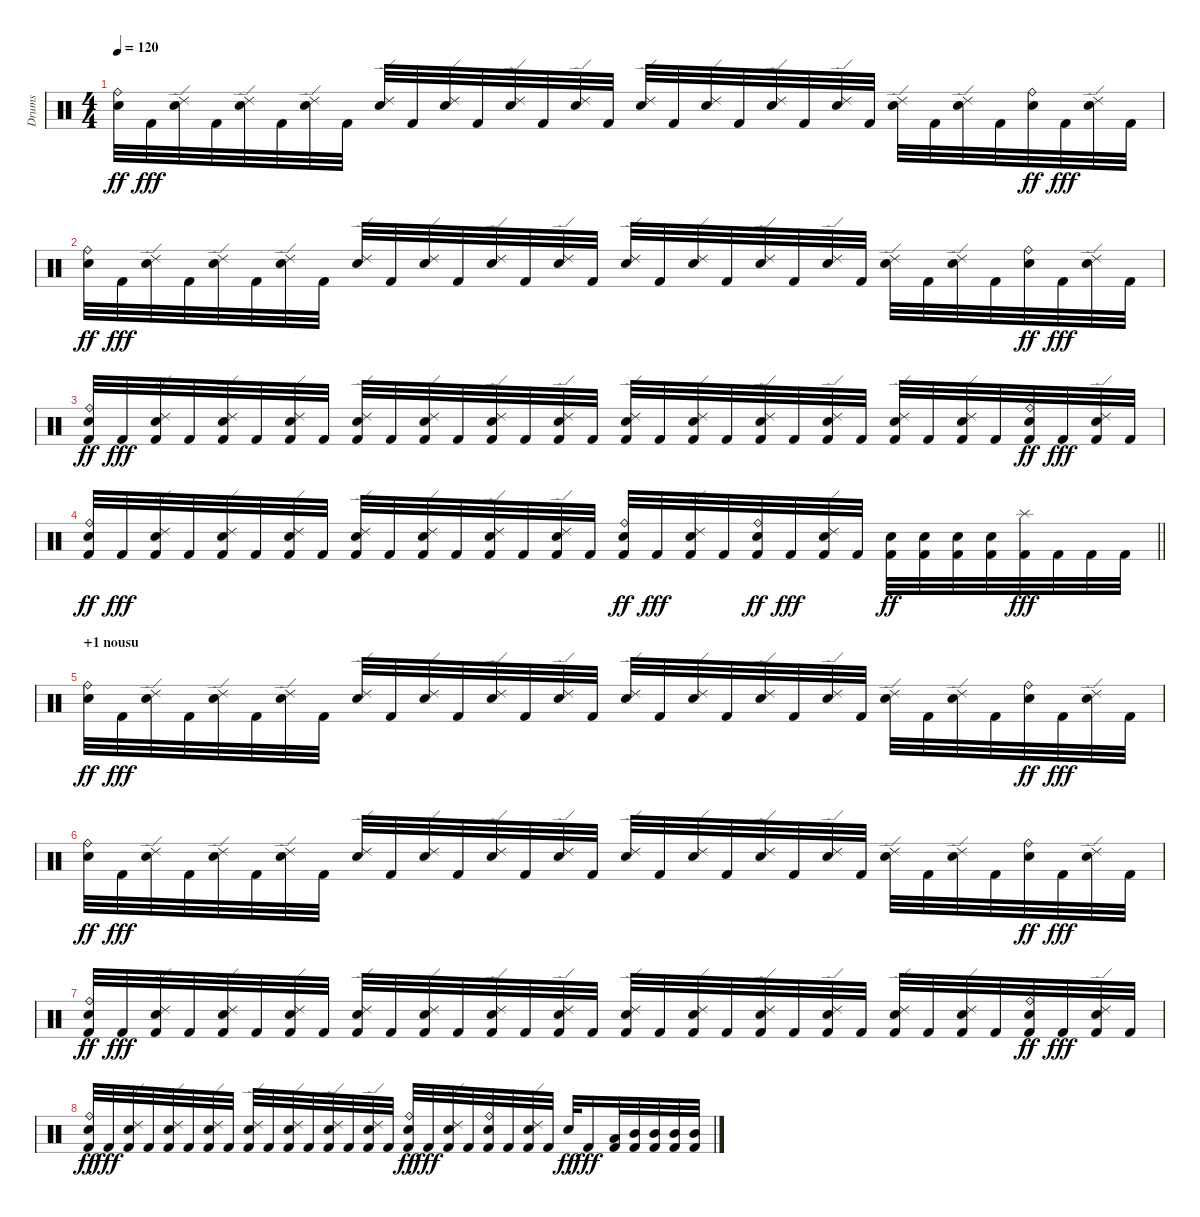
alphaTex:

\track ("Drums" "Drums") {instrument percussion}
\staff {score}
\articulation defaults
\ts (4 4)
\tempo 120
\clef neutral
\ks c
("Snare (hit) 2" "Ride (bell)").32{dy ff} "Kick (hit) 2".32{dy fff} ("Snare (hit) 2" "Ride (edge) 2").32 "Kick (hit) 2".32 ("Snare (hit) 2" "Ride (edge) 2").32 "Kick (hit) 2".32 ("Snare (hit) 2" "Ride (edge) 2").32 "Kick (hit) 2".32 ("Snare (hit) 2" "Ride (edge) 2").32 "Kick (hit) 2".32 ("Snare (hit) 2" "Ride (edge) 2").32 "Kick (hit) 2".32 ("Snare (hit) 2" "Ride (edge) 2").32 "Kick (hit) 2".32 ("Snare (hit) 2" "Ride (edge) 2").32 "Kick (hit) 2".32 ("Snare (hit) 2" "Ride (edge) 2").32 "Kick (hit) 2".32 ("Snare (hit) 2" "Ride (edge) 2").32 "Kick (hit) 2".32 ("Snare (hit) 2" "Ride (edge) 2").32 "Kick (hit) 2".32 ("Snare (hit) 2" "Ride (edge) 2").32 "Kick (hit) 2".32 ("Snare (hit) 2" "Ride (edge) 2").32 "Kick (hit) 2".32 ("Snare (hit) 2" "Ride (edge) 2").32 "Kick (hit) 2".32 ("Snare (hit) 2" "Ride (bell)").32{dy ff} "Kick (hit) 2".32{dy fff} ("Snare (hit) 2" "Ride (edge) 2").32 "Kick (hit) 2".32 |
("Snare (hit) 2" "Ride (bell)").32{dy ff} "Kick (hit) 2".32{dy fff} ("Snare (hit) 2" "Ride (edge) 2").32 "Kick (hit) 2".32 ("Snare (hit) 2" "Ride (edge) 2").32 "Kick (hit) 2".32 ("Snare (hit) 2" "Ride (edge) 2").32 "Kick (hit) 2".32 ("Snare (hit) 2" "Ride (edge) 2").32 "Kick (hit) 2".32 ("Snare (hit) 2" "Ride (edge) 2").32 "Kick (hit) 2".32 ("Snare (hit) 2" "Ride (edge) 2").32 "Kick (hit) 2".32 ("Snare (hit) 2" "Ride (edge) 2").32 "Kick (hit) 2".32 ("Snare (hit) 2" "Ride (edge) 2").32 "Kick (hit) 2".32 ("Snare (hit) 2" "Ride (edge) 2").32 "Kick (hit) 2".32 ("Snare (hit) 2" "Ride (edge) 2").32 "Kick (hit) 2".32 ("Snare (hit) 2" "Ride (edge) 2").32 "Kick (hit) 2".32 ("Snare (hit) 2" "Ride (edge) 2").32 "Kick (hit) 2".32 ("Snare (hit) 2" "Ride (edge) 2").32 "Kick (hit) 2".32 ("Snare (hit) 2" "Ride (bell)").32{dy ff} "Kick (hit) 2".32{dy fff} ("Snare (hit) 2" "Ride (edge) 2").32 "Kick (hit) 2".32 |
("Kick (hit) 2" "Snare (hit) 2" "Ride (bell)").32{dy ff} "Kick (hit) 2".32{dy fff} ("Kick (hit) 2" "Snare (hit) 2" "Ride (edge) 2").32 "Kick (hit) 2".32 ("Kick (hit) 2" "Snare (hit) 2" "Ride (edge) 2").32 "Kick (hit) 2".32 ("Kick (hit) 2" "Snare (hit) 2" "Ride (edge) 2").32 "Kick (hit) 2".32 ("Kick (hit) 2" "Snare (hit) 2" "Ride (edge) 2").32 "Kick (hit) 2".32 ("Kick (hit) 2" "Snare (hit) 2" "Ride (edge) 2").32 "Kick (hit) 2".32 ("Kick (hit) 2" "Snare (hit) 2" "Ride (edge) 2").32 "Kick (hit) 2".32 ("Kick (hit) 2" "Snare (hit) 2" "Ride (edge) 2").32 "Kick (hit) 2".32 ("Kick (hit) 2" "Snare (hit) 2" "Ride (edge) 2").32 "Kick (hit) 2".32 ("Kick (hit) 2" "Snare (hit) 2" "Ride (edge) 2").32 "Kick (hit) 2".32 ("Kick (hit) 2" "Snare (hit) 2" "Ride (edge) 2").32 "Kick (hit) 2".32 ("Kick (hit) 2" "Snare (hit) 2" "Ride (edge) 2").32 "Kick (hit) 2".32 ("Kick (hit) 2" "Snare (hit) 2" "Ride (edge) 2").32 "Kick (hit) 2".32 ("Kick (hit) 2" "Snare (hit) 2" "Ride (edge) 2").32 "Kick (hit) 2".32 ("Kick (hit) 2" "Snare (hit) 2" "Ride (bell)").32{dy ff} "Kick (hit) 2".32{dy fff} ("Kick (hit) 2" "Snare (hit) 2" "Ride (edge) 2").32 "Kick (hit) 2".32 |
\barLineRight lightlight
("Kick (hit) 2" "Snare (hit) 2" "Ride (bell)").32{dy ff} "Kick (hit) 2".32{dy fff} ("Kick (hit) 2" "Snare (hit) 2" "Ride (edge) 2").32 "Kick (hit) 2".32 ("Kick (hit) 2" "Snare (hit) 2" "Ride (edge) 2").32 "Kick (hit) 2".32 ("Kick (hit) 2" "Snare (hit) 2" "Ride (edge) 2").32 "Kick (hit) 2".32 ("Kick (hit) 2" "Snare (hit) 2" "Ride (edge) 2").32 "Kick (hit) 2".32 ("Kick (hit) 2" "Snare (hit) 2" "Ride (edge) 2").32 "Kick (hit) 2".32 ("Kick (hit) 2" "Snare (hit) 2" "Ride (edge) 2").32 "Kick (hit) 2".32 ("Kick (hit) 2" "Snare (hit) 2" "Ride (edge) 2").32 "Kick (hit) 2".32 ("Kick (hit) 2" "Snare (hit) 2" "Ride (bell)").32{dy ff} "Kick (hit) 2".32{dy fff} ("Kick (hit) 2" "Snare (hit) 2" "Ride (edge) 2").32 "Kick (hit) 2".32 ("Kick (hit) 2" "Snare (hit) 2" "Ride (bell)").32{dy ff} "Kick (hit) 2".32{dy fff} ("Kick (hit) 2" "Snare (hit) 2" "Ride (edge) 2").32 "Kick (hit) 2".32 ("Kick (hit) 2" "Snare (hit) 2").32{dy ff} ("Kick (hit) 2" "Snare (hit) 2").32 ("Kick (hit) 2" "Snare (hit) 2").32 ("Kick (hit) 2" "Snare (hit) 2").32 ("Kick (hit) 2" "Splash (hit)").32{dy fff} "Kick (hit) 2".32 "Kick (hit) 2".32 "Kick (hit) 2".32 |
\section ("" "+1 nousu")
("Snare (hit) 2" "Ride (bell)").32{dy ff} "Kick (hit) 2".32{dy fff} ("Snare (hit) 2" "Ride (edge) 2").32 "Kick (hit) 2".32 ("Snare (hit) 2" "Ride (edge) 2").32 "Kick (hit) 2".32 ("Snare (hit) 2" "Ride (edge) 2").32 "Kick (hit) 2".32 ("Snare (hit) 2" "Ride (edge) 2").32 "Kick (hit) 2".32 ("Snare (hit) 2" "Ride (edge) 2").32 "Kick (hit) 2".32 ("Snare (hit) 2" "Ride (edge) 2").32 "Kick (hit) 2".32 ("Snare (hit) 2" "Ride (edge) 2").32 "Kick (hit) 2".32 ("Snare (hit) 2" "Ride (edge) 2").32 "Kick (hit) 2".32 ("Snare (hit) 2" "Ride (edge) 2").32 "Kick (hit) 2".32 ("Snare (hit) 2" "Ride (edge) 2").32 "Kick (hit) 2".32 ("Snare (hit) 2" "Ride (edge) 2").32 "Kick (hit) 2".32 ("Snare (hit) 2" "Ride (edge) 2").32 "Kick (hit) 2".32 ("Snare (hit) 2" "Ride (edge) 2").32 "Kick (hit) 2".32 ("Snare (hit) 2" "Ride (bell)").32{dy ff} "Kick (hit) 2".32{dy fff} ("Snare (hit) 2" "Ride (edge) 2").32 "Kick (hit) 2".32 |
("Snare (hit) 2" "Ride (bell)").32{dy ff} "Kick (hit) 2".32{dy fff} ("Snare (hit) 2" "Ride (edge) 2").32 "Kick (hit) 2".32 ("Snare (hit) 2" "Ride (edge) 2").32 "Kick (hit) 2".32 ("Snare (hit) 2" "Ride (edge) 2").32 "Kick (hit) 2".32 ("Snare (hit) 2" "Ride (edge) 2").32 "Kick (hit) 2".32 ("Snare (hit) 2" "Ride (edge) 2").32 "Kick (hit) 2".32 ("Snare (hit) 2" "Ride (edge) 2").32 "Kick (hit) 2".32 ("Snare (hit) 2" "Ride (edge) 2").32 "Kick (hit) 2".32 ("Snare (hit) 2" "Ride (edge) 2").32 "Kick (hit) 2".32 ("Snare (hit) 2" "Ride (edge) 2").32 "Kick (hit) 2".32 ("Snare (hit) 2" "Ride (edge) 2").32 "Kick (hit) 2".32 ("Snare (hit) 2" "Ride (edge) 2").32 "Kick (hit) 2".32 ("Snare (hit) 2" "Ride (edge) 2").32 "Kick (hit) 2".32 ("Snare (hit) 2" "Ride (edge) 2").32 "Kick (hit) 2".32 ("Snare (hit) 2" "Ride (bell)").32{dy ff} "Kick (hit) 2".32{dy fff} ("Snare (hit) 2" "Ride (edge) 2").32 "Kick (hit) 2".32 |
("Kick (hit) 2" "Snare (hit) 2" "Ride (bell)").32{dy ff} "Kick (hit) 2".32{dy fff} ("Kick (hit) 2" "Snare (hit) 2" "Ride (edge) 2").32 "Kick (hit) 2".32 ("Kick (hit) 2" "Snare (hit) 2" "Ride (edge) 2").32 "Kick (hit) 2".32 ("Kick (hit) 2" "Snare (hit) 2" "Ride (edge) 2").32 "Kick (hit) 2".32 ("Kick (hit) 2" "Snare (hit) 2" "Ride (edge) 2").32 "Kick (hit) 2".32 ("Kick (hit) 2" "Snare (hit) 2" "Ride (edge) 2").32 "Kick (hit) 2".32 ("Kick (hit) 2" "Snare (hit) 2" "Ride (edge) 2").32 "Kick (hit) 2".32 ("Kick (hit) 2" "Snare (hit) 2" "Ride (edge) 2").32 "Kick (hit) 2".32 ("Kick (hit) 2" "Snare (hit) 2" "Ride (edge) 2").32 "Kick (hit) 2".32 ("Kick (hit) 2" "Snare (hit) 2" "Ride (edge) 2").32 "Kick (hit) 2".32 ("Kick (hit) 2" "Snare (hit) 2" "Ride (edge) 2").32 "Kick (hit) 2".32 ("Kick (hit) 2" "Snare (hit) 2" "Ride (edge) 2").32 "Kick (hit) 2".32 ("Kick (hit) 2" "Snare (hit) 2" "Ride (edge) 2").32 "Kick (hit) 2".32 ("Kick (hit) 2" "Snare (hit) 2" "Ride (edge) 2").32 "Kick (hit) 2".32 ("Kick (hit) 2" "Snare (hit) 2" "Ride (bell)").32{dy ff} "Kick (hit) 2".32{dy fff} ("Kick (hit) 2" "Snare (hit) 2" "Ride (edge) 2").32 "Kick (hit) 2".32 |
("Kick (hit) 2" "Snare (hit) 2" "Ride (bell)").32{dy ff} "Kick (hit) 2".32{dy fff} ("Kick (hit) 2" "Snare (hit) 2" "Ride (edge) 2").32 "Kick (hit) 2".32 ("Kick (hit) 2" "Snare (hit) 2" "Ride (edge) 2").32 "Kick (hit) 2".32 ("Kick (hit) 2" "Snare (hit) 2" "Ride (edge) 2").32 "Kick (hit) 2".32 ("Kick (hit) 2" "Snare (hit) 2" "Ride (edge) 2").32 "Kick (hit) 2".32 ("Kick (hit) 2" "Snare (hit) 2" "Ride (edge) 2").32 "Kick (hit) 2".32 ("Kick (hit) 2" "Snare (hit) 2" "Ride (edge) 2").32 "Kick (hit) 2".32 ("Kick (hit) 2" "Snare (hit) 2" "Ride (edge) 2").32 "Kick (hit) 2".32 ("Kick (hit) 2" "Snare (hit) 2" "Ride (bell)").32{dy ff} "Kick (hit) 2".32{dy fff} ("Kick (hit) 2" "Snare (hit) 2" "Ride (edge) 2").32 "Kick (hit) 2".32 ("Kick (hit) 2" "Snare (hit) 2" "Ride (bell)").32 "Kick (hit) 2".32 ("Kick (hit) 2" "Snare (hit) 2" "Ride (edge) 2").32 "Kick (hit) 2".32 "Snare (hit) 2".32{dy ff} "Kick (hit) 2".16{dy fff} ("Kick (hit) 2" "Low Tom (hit)").32 ("Kick (hit) 2" "Mid Tom (hit)").32 ("Kick (hit) 2" "Mid Tom (hit)").32 ("Kick (hit) 2" "Mid Tom (hit)").32 ("Kick (hit) 2" "Mid Tom (hit)").32
